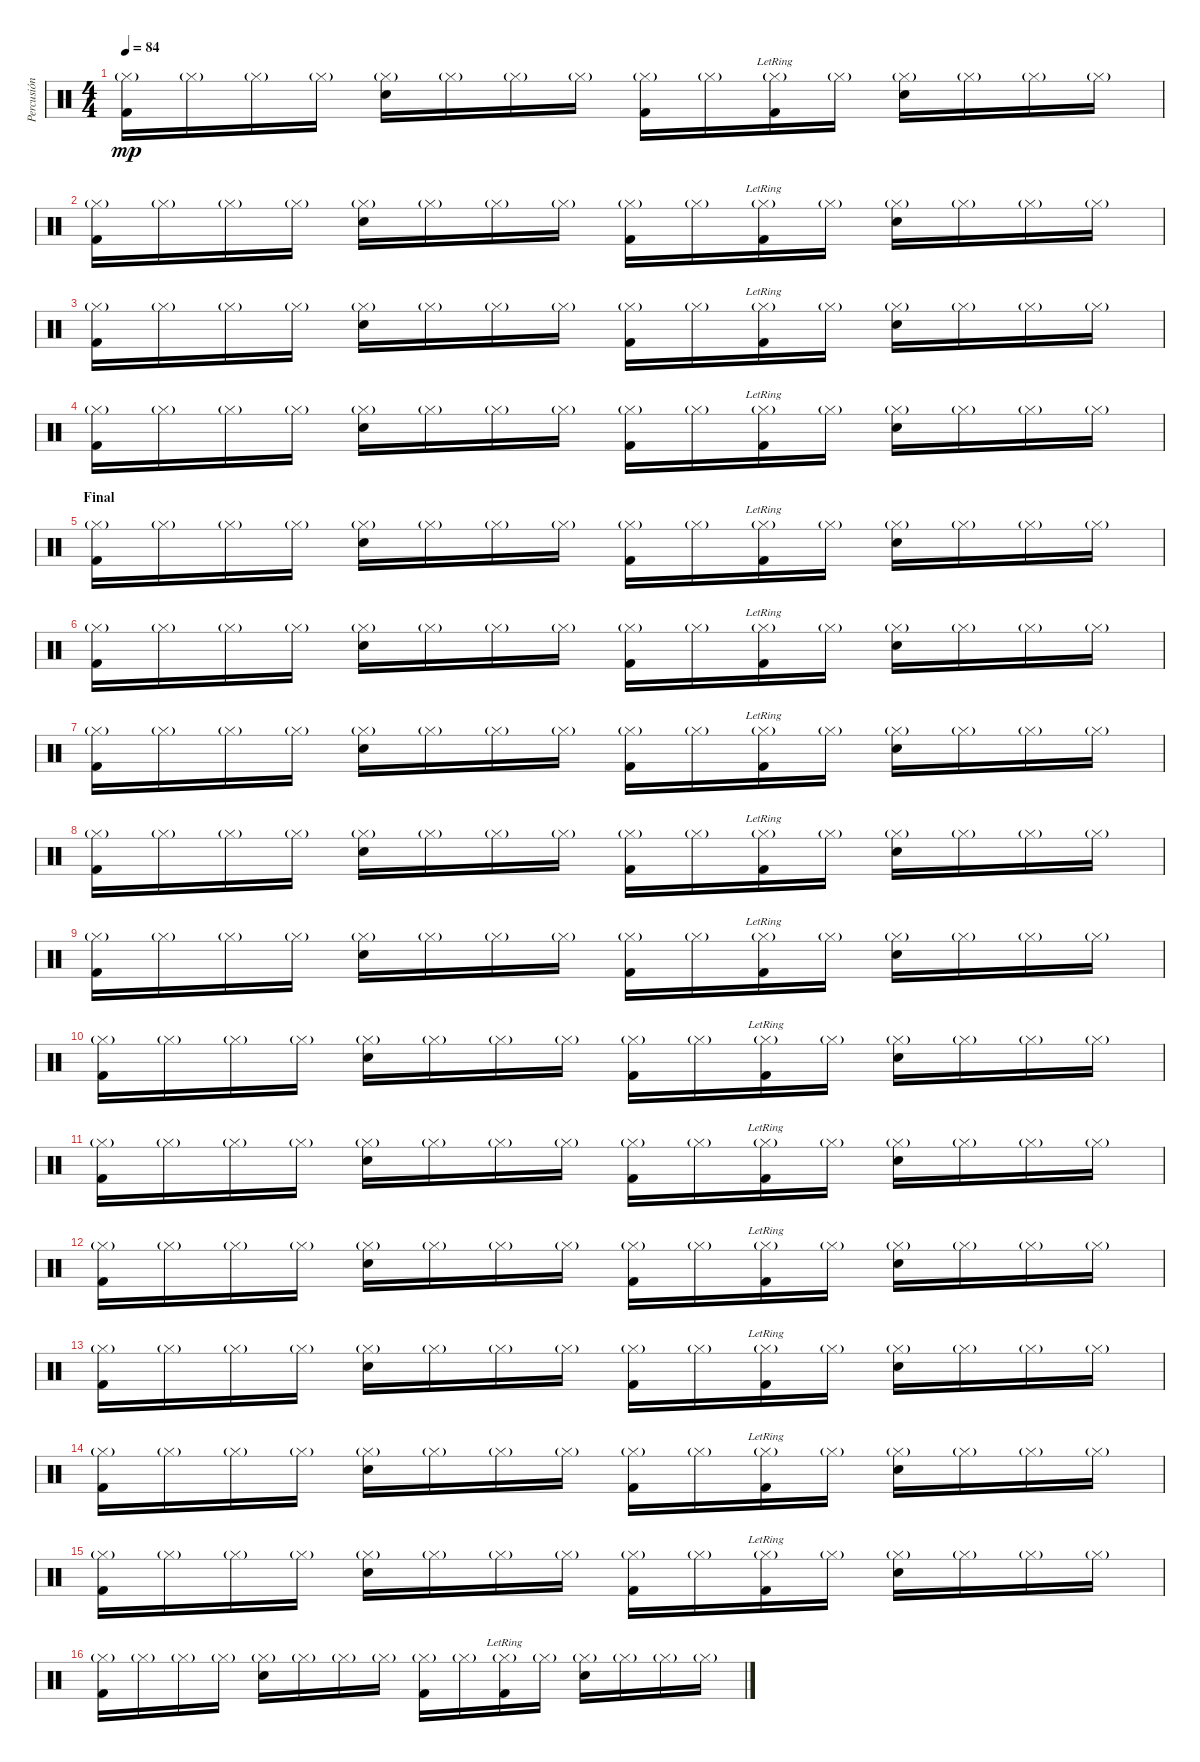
\track ("Percusión 2" "Percusión ") {instrument percussion}
\staff {score}
\articulation defaults
\ts (4 4)
\tempo 84
\clef neutral
\ks c
("Hi-Hat (closed)"{g} "Kick (hit) 2").16{dy mp} "Hi-Hat (closed)"{g}.16 "Hi-Hat (closed)"{g}.16 "Hi-Hat (closed)"{g}.16 ("Hi-Hat (closed)"{g} "Snare (hit) 2").16 "Hi-Hat (closed)"{g}.16 "Hi-Hat (closed)"{g}.16 "Hi-Hat (closed)"{g}.16 ("Hi-Hat (closed)"{g} "Kick (hit) 2").16 "Hi-Hat (closed)"{g}.16 ("Hi-Hat (closed)"{g} "Kick (hit) 2"{lr}).16 "Hi-Hat (closed)"{g}.16 ("Hi-Hat (closed)"{g} "Snare (hit) 2").16 "Hi-Hat (closed)"{g}.16 "Hi-Hat (closed)"{g}.16 "Hi-Hat (closed)"{g}.16 |
("Hi-Hat (closed)"{g} "Kick (hit) 2").16 "Hi-Hat (closed)"{g}.16 "Hi-Hat (closed)"{g}.16 "Hi-Hat (closed)"{g}.16 ("Hi-Hat (closed)"{g} "Snare (hit) 2").16 "Hi-Hat (closed)"{g}.16 "Hi-Hat (closed)"{g}.16 "Hi-Hat (closed)"{g}.16 ("Hi-Hat (closed)"{g} "Kick (hit) 2").16 "Hi-Hat (closed)"{g}.16 ("Hi-Hat (closed)"{g} "Kick (hit) 2"{lr}).16 "Hi-Hat (closed)"{g}.16 ("Hi-Hat (closed)"{g} "Snare (hit) 2").16 "Hi-Hat (closed)"{g}.16 "Hi-Hat (closed)"{g}.16 "Hi-Hat (closed)"{g}.16 |
("Hi-Hat (closed)"{g} "Kick (hit) 2").16 "Hi-Hat (closed)"{g}.16 "Hi-Hat (closed)"{g}.16 "Hi-Hat (closed)"{g}.16 ("Hi-Hat (closed)"{g} "Snare (hit) 2").16 "Hi-Hat (closed)"{g}.16 "Hi-Hat (closed)"{g}.16 "Hi-Hat (closed)"{g}.16 ("Hi-Hat (closed)"{g} "Kick (hit) 2").16 "Hi-Hat (closed)"{g}.16 ("Hi-Hat (closed)"{g} "Kick (hit) 2"{lr}).16 "Hi-Hat (closed)"{g}.16 ("Hi-Hat (closed)"{g} "Snare (hit) 2").16 "Hi-Hat (closed)"{g}.16 "Hi-Hat (closed)"{g}.16 "Hi-Hat (closed)"{g}.16 |
("Hi-Hat (closed)"{g} "Kick (hit) 2").16 "Hi-Hat (closed)"{g}.16 "Hi-Hat (closed)"{g}.16 "Hi-Hat (closed)"{g}.16 ("Hi-Hat (closed)"{g} "Snare (hit) 2").16 "Hi-Hat (closed)"{g}.16 "Hi-Hat (closed)"{g}.16 "Hi-Hat (closed)"{g}.16 ("Hi-Hat (closed)"{g} "Kick (hit) 2").16 "Hi-Hat (closed)"{g}.16 ("Hi-Hat (closed)"{g} "Kick (hit) 2"{lr}).16 "Hi-Hat (closed)"{g}.16 ("Hi-Hat (closed)"{g} "Snare (hit) 2").16 "Hi-Hat (closed)"{g}.16 "Hi-Hat (closed)"{g}.16 "Hi-Hat (closed)"{g}.16 |
\section ("" "Final")
("Hi-Hat (closed)"{g} "Kick (hit) 2").16 "Hi-Hat (closed)"{g}.16 "Hi-Hat (closed)"{g}.16 "Hi-Hat (closed)"{g}.16 ("Hi-Hat (closed)"{g} "Snare (hit) 2").16 "Hi-Hat (closed)"{g}.16 "Hi-Hat (closed)"{g}.16 "Hi-Hat (closed)"{g}.16 ("Hi-Hat (closed)"{g} "Kick (hit) 2").16 "Hi-Hat (closed)"{g}.16 ("Hi-Hat (closed)"{g} "Kick (hit) 2"{lr}).16 "Hi-Hat (closed)"{g}.16 ("Hi-Hat (closed)"{g} "Snare (hit) 2").16 "Hi-Hat (closed)"{g}.16 "Hi-Hat (closed)"{g}.16 "Hi-Hat (closed)"{g}.16 |
("Hi-Hat (closed)"{g} "Kick (hit) 2").16 "Hi-Hat (closed)"{g}.16 "Hi-Hat (closed)"{g}.16 "Hi-Hat (closed)"{g}.16 ("Hi-Hat (closed)"{g} "Snare (hit) 2").16 "Hi-Hat (closed)"{g}.16 "Hi-Hat (closed)"{g}.16 "Hi-Hat (closed)"{g}.16 ("Hi-Hat (closed)"{g} "Kick (hit) 2").16 "Hi-Hat (closed)"{g}.16 ("Hi-Hat (closed)"{g} "Kick (hit) 2"{lr}).16 "Hi-Hat (closed)"{g}.16 ("Hi-Hat (closed)"{g} "Snare (hit) 2").16 "Hi-Hat (closed)"{g}.16 "Hi-Hat (closed)"{g}.16 "Hi-Hat (closed)"{g}.16 |
("Hi-Hat (closed)"{g} "Kick (hit) 2").16 "Hi-Hat (closed)"{g}.16 "Hi-Hat (closed)"{g}.16 "Hi-Hat (closed)"{g}.16 ("Hi-Hat (closed)"{g} "Snare (hit) 2").16 "Hi-Hat (closed)"{g}.16 "Hi-Hat (closed)"{g}.16 "Hi-Hat (closed)"{g}.16 ("Hi-Hat (closed)"{g} "Kick (hit) 2").16 "Hi-Hat (closed)"{g}.16 ("Hi-Hat (closed)"{g} "Kick (hit) 2"{lr}).16 "Hi-Hat (closed)"{g}.16 ("Hi-Hat (closed)"{g} "Snare (hit) 2").16 "Hi-Hat (closed)"{g}.16 "Hi-Hat (closed)"{g}.16 "Hi-Hat (closed)"{g}.16 |
("Hi-Hat (closed)"{g} "Kick (hit) 2").16 "Hi-Hat (closed)"{g}.16 "Hi-Hat (closed)"{g}.16 "Hi-Hat (closed)"{g}.16 ("Hi-Hat (closed)"{g} "Snare (hit) 2").16 "Hi-Hat (closed)"{g}.16 "Hi-Hat (closed)"{g}.16 "Hi-Hat (closed)"{g}.16 ("Hi-Hat (closed)"{g} "Kick (hit) 2").16 "Hi-Hat (closed)"{g}.16 ("Hi-Hat (closed)"{g} "Kick (hit) 2"{lr}).16 "Hi-Hat (closed)"{g}.16 ("Hi-Hat (closed)"{g} "Snare (hit) 2").16 "Hi-Hat (closed)"{g}.16 "Hi-Hat (closed)"{g}.16 "Hi-Hat (closed)"{g}.16 |
("Hi-Hat (closed)"{g} "Kick (hit) 2").16 "Hi-Hat (closed)"{g}.16 "Hi-Hat (closed)"{g}.16 "Hi-Hat (closed)"{g}.16 ("Hi-Hat (closed)"{g} "Snare (hit) 2").16 "Hi-Hat (closed)"{g}.16 "Hi-Hat (closed)"{g}.16 "Hi-Hat (closed)"{g}.16 ("Hi-Hat (closed)"{g} "Kick (hit) 2").16 "Hi-Hat (closed)"{g}.16 ("Hi-Hat (closed)"{g} "Kick (hit) 2"{lr}).16 "Hi-Hat (closed)"{g}.16 ("Hi-Hat (closed)"{g} "Snare (hit) 2").16 "Hi-Hat (closed)"{g}.16 "Hi-Hat (closed)"{g}.16 "Hi-Hat (closed)"{g}.16 |
("Hi-Hat (closed)"{g} "Kick (hit) 2").16 "Hi-Hat (closed)"{g}.16 "Hi-Hat (closed)"{g}.16 "Hi-Hat (closed)"{g}.16 ("Hi-Hat (closed)"{g} "Snare (hit) 2").16 "Hi-Hat (closed)"{g}.16 "Hi-Hat (closed)"{g}.16 "Hi-Hat (closed)"{g}.16 ("Hi-Hat (closed)"{g} "Kick (hit) 2").16 "Hi-Hat (closed)"{g}.16 ("Hi-Hat (closed)"{g} "Kick (hit) 2"{lr}).16 "Hi-Hat (closed)"{g}.16 ("Hi-Hat (closed)"{g} "Snare (hit) 2").16 "Hi-Hat (closed)"{g}.16 "Hi-Hat (closed)"{g}.16 "Hi-Hat (closed)"{g}.16 |
("Hi-Hat (closed)"{g} "Kick (hit) 2").16 "Hi-Hat (closed)"{g}.16 "Hi-Hat (closed)"{g}.16 "Hi-Hat (closed)"{g}.16 ("Hi-Hat (closed)"{g} "Snare (hit) 2").16 "Hi-Hat (closed)"{g}.16 "Hi-Hat (closed)"{g}.16 "Hi-Hat (closed)"{g}.16 ("Hi-Hat (closed)"{g} "Kick (hit) 2").16 "Hi-Hat (closed)"{g}.16 ("Hi-Hat (closed)"{g} "Kick (hit) 2"{lr}).16 "Hi-Hat (closed)"{g}.16 ("Hi-Hat (closed)"{g} "Snare (hit) 2").16 "Hi-Hat (closed)"{g}.16 "Hi-Hat (closed)"{g}.16 "Hi-Hat (closed)"{g}.16 |
("Hi-Hat (closed)"{g} "Kick (hit) 2").16 "Hi-Hat (closed)"{g}.16 "Hi-Hat (closed)"{g}.16 "Hi-Hat (closed)"{g}.16 ("Hi-Hat (closed)"{g} "Snare (hit) 2").16 "Hi-Hat (closed)"{g}.16 "Hi-Hat (closed)"{g}.16 "Hi-Hat (closed)"{g}.16 ("Hi-Hat (closed)"{g} "Kick (hit) 2").16 "Hi-Hat (closed)"{g}.16 ("Hi-Hat (closed)"{g} "Kick (hit) 2"{lr}).16 "Hi-Hat (closed)"{g}.16 ("Hi-Hat (closed)"{g} "Snare (hit) 2").16 "Hi-Hat (closed)"{g}.16 "Hi-Hat (closed)"{g}.16 "Hi-Hat (closed)"{g}.16 |
("Hi-Hat (closed)"{g} "Kick (hit) 2").16 "Hi-Hat (closed)"{g}.16 "Hi-Hat (closed)"{g}.16 "Hi-Hat (closed)"{g}.16 ("Hi-Hat (closed)"{g} "Snare (hit) 2").16 "Hi-Hat (closed)"{g}.16 "Hi-Hat (closed)"{g}.16 "Hi-Hat (closed)"{g}.16 ("Hi-Hat (closed)"{g} "Kick (hit) 2").16 "Hi-Hat (closed)"{g}.16 ("Hi-Hat (closed)"{g} "Kick (hit) 2"{lr}).16 "Hi-Hat (closed)"{g}.16 ("Hi-Hat (closed)"{g} "Snare (hit) 2").16 "Hi-Hat (closed)"{g}.16 "Hi-Hat (closed)"{g}.16 "Hi-Hat (closed)"{g}.16 |
("Hi-Hat (closed)"{g} "Kick (hit) 2").16 "Hi-Hat (closed)"{g}.16 "Hi-Hat (closed)"{g}.16 "Hi-Hat (closed)"{g}.16 ("Hi-Hat (closed)"{g} "Snare (hit) 2").16 "Hi-Hat (closed)"{g}.16 "Hi-Hat (closed)"{g}.16 "Hi-Hat (closed)"{g}.16 ("Hi-Hat (closed)"{g} "Kick (hit) 2").16 "Hi-Hat (closed)"{g}.16 ("Hi-Hat (closed)"{g} "Kick (hit) 2"{lr}).16 "Hi-Hat (closed)"{g}.16 ("Hi-Hat (closed)"{g} "Snare (hit) 2").16 "Hi-Hat (closed)"{g}.16 "Hi-Hat (closed)"{g}.16 "Hi-Hat (closed)"{g}.16 |
("Hi-Hat (closed)"{g} "Kick (hit) 2").16 "Hi-Hat (closed)"{g}.16 "Hi-Hat (closed)"{g}.16 "Hi-Hat (closed)"{g}.16 ("Hi-Hat (closed)"{g} "Snare (hit) 2").16 "Hi-Hat (closed)"{g}.16 "Hi-Hat (closed)"{g}.16 "Hi-Hat (closed)"{g}.16 ("Hi-Hat (closed)"{g} "Kick (hit) 2").16 "Hi-Hat (closed)"{g}.16 ("Hi-Hat (closed)"{g} "Kick (hit) 2"{lr}).16 "Hi-Hat (closed)"{g}.16 ("Hi-Hat (closed)"{g} "Snare (hit) 2").16 "Hi-Hat (closed)"{g}.16 "Hi-Hat (closed)"{g}.16 "Hi-Hat (closed)"{g}.16 |
("Hi-Hat (closed)"{g} "Kick (hit) 2").16 "Hi-Hat (closed)"{g}.16 "Hi-Hat (closed)"{g}.16 "Hi-Hat (closed)"{g}.16 ("Hi-Hat (closed)"{g} "Snare (hit) 2").16 "Hi-Hat (closed)"{g}.16 "Hi-Hat (closed)"{g}.16 "Hi-Hat (closed)"{g}.16 ("Hi-Hat (closed)"{g} "Kick (hit) 2").16 "Hi-Hat (closed)"{g}.16 ("Hi-Hat (closed)"{g} "Kick (hit) 2"{lr}).16 "Hi-Hat (closed)"{g}.16 ("Hi-Hat (closed)"{g} "Snare (hit) 2").16 "Hi-Hat (closed)"{g}.16 "Hi-Hat (closed)"{g}.16 "Hi-Hat (closed)"{g}.16
